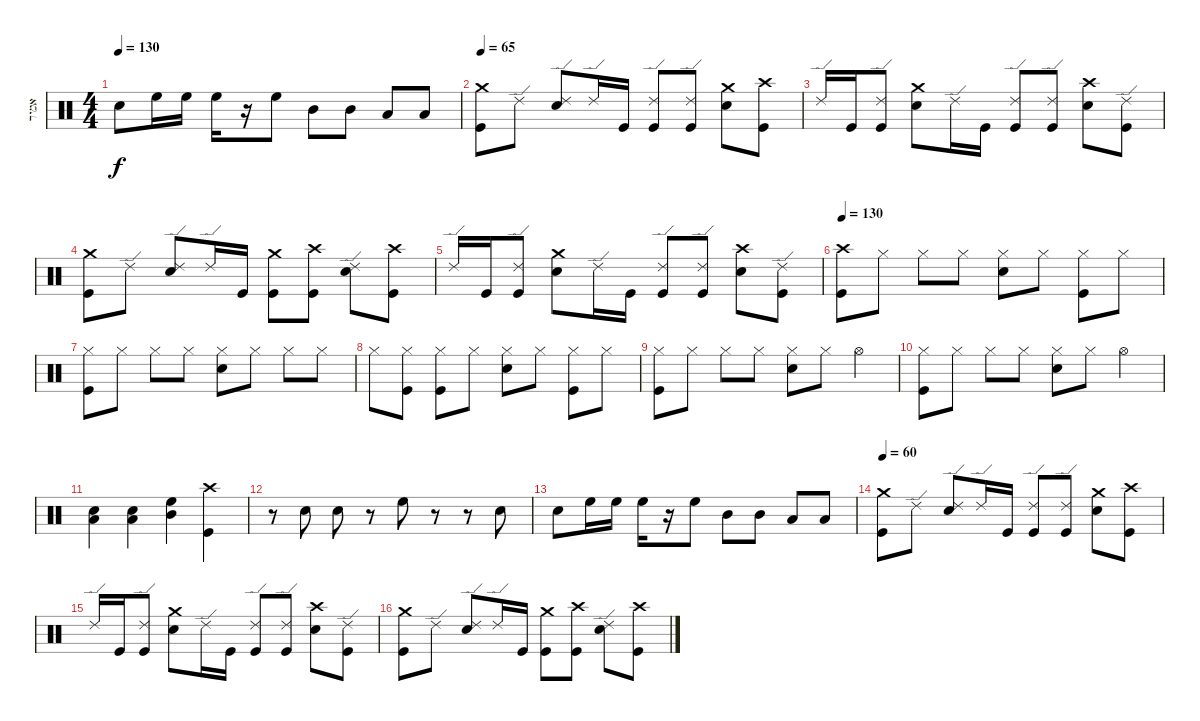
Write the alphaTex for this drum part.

\track ("אמיר" "אמיר") {instrument percussion}
\staff {score}
\articulation defaults
\ts (4 4)
\tempo 130
\clef neutral
\ks c "Snare (hit) 2".8{dy f} "High Floor Tom (hit)".16 "High Floor Tom (hit)".16 "High Floor Tom (hit)".16
r.16 "High Floor Tom (hit)".8 "Mid Tom (hit)".8 "Mid Tom (hit)".8 "Low Floor Tom (hit)".8 "Low Floor Tom (hit)".8 |
\tempo 65
("Crash medium (hit)" "Kick (hit)").8 "Ride (edge) 2".8 ("Ride (edge) 2" "Snare (hit) 2").8 "Ride (edge) 2".16 "Kick (hit)".16 ("Ride (edge) 2" "Kick (hit)").8 ("Ride (edge) 2" "Kick (hit)").8 ("Crash medium (hit)" "Snare (hit) 2").8 ("Crash high (hit)" "Kick (hit)").8 |
"Ride (edge) 2".16 "Kick (hit)".16 ("Ride (edge) 2" "Kick (hit)").8 ("Crash medium (hit)" "Snare (hit) 2").8 "Ride (edge) 2".16 "Kick (hit)".16 ("Ride (edge) 2" "Kick (hit)").8 ("Ride (edge) 2" "Kick (hit)").8 ("Crash high (hit)" "Snare (hit) 2").8 ("Ride (edge) 2" "Kick (hit)").8 |
("Crash medium (hit)" "Kick (hit)").8 "Ride (edge) 2".8 ("Ride (edge) 2" "Snare (hit) 2").8 "Ride (edge) 2".16 "Kick (hit)".16 ("Crash medium (hit)" "Kick (hit)").8 ("Crash high (hit)" "Kick (hit)").8 ("Ride (edge) 2" "Snare (hit) 2").8 ("Crash high (hit)" "Kick (hit)").8 |
"Ride (edge) 2".16 "Kick (hit)".16 ("Ride (edge) 2" "Kick (hit)").8 ("Crash medium (hit)" "Snare (hit) 2").8 "Ride (edge) 2".16 "Kick (hit)".16 ("Ride (edge) 2" "Kick (hit)").8 ("Ride (edge) 2" "Kick (hit)").8 ("Crash high (hit)" "Snare (hit) 2").8 ("Ride (edge) 2" "Kick (hit)").8 |
\tempo 120
\tempo 130
("Crash high (hit)" "Kick (hit)").8 "Hi-Hat (closed)".8 "Hi-Hat (closed)".8 "Hi-Hat (closed)".8 ("Hi-Hat (closed)" "Snare (hit) 2").8 "Hi-Hat (closed)".8 ("Hi-Hat (closed)" "Kick (hit)").8 "Hi-Hat (closed)".8 |
("Hi-Hat (closed)" "Kick (hit)").8 "Hi-Hat (closed)".8 "Hi-Hat (closed)".8 "Hi-Hat (closed)".8 ("Hi-Hat (closed)" "Snare (hit) 2").8 "Hi-Hat (closed)".8 "Hi-Hat (closed)".8 "Hi-Hat (closed)".8 |
"Hi-Hat (closed)".8 ("Hi-Hat (closed)" "Kick (hit)").8 ("Hi-Hat (closed)" "Kick (hit)").8 "Hi-Hat (closed)".8 ("Hi-Hat (closed)" "Snare (hit) 2").8 "Hi-Hat (closed)".8 ("Hi-Hat (closed)" "Kick (hit)").8 "Hi-Hat (closed)".8 |
("Hi-Hat (closed)" "Kick (hit)").8 "Hi-Hat (closed)".8 "Hi-Hat (closed)".8 "Hi-Hat (closed)".8 ("Hi-Hat (closed)" "Snare (hit) 2").8 "Hi-Hat (closed)".8 "Hi-Hat (open)".4 |
("Hi-Hat (closed)" "Kick (hit)").8 "Hi-Hat (closed)".8 "Hi-Hat (closed)".8 "Hi-Hat (closed)".8 ("Hi-Hat (closed)" "Snare (hit) 2").8 "Hi-Hat (closed)".8 "Hi-Hat (open)".4 |
("Snare (hit) 2" "Low Floor Tom (hit)").4 ("Snare (hit) 2" "Low Floor Tom (hit)").4 ("High Floor Tom (hit)" "Mid Tom (hit)").4 ("Crash high (hit)" "Kick (hit)").4 |
r.8 "Snare (hit) 2".8 "Snare (hit) 2".8 r.8 "High Floor Tom (hit)".8 r.8 r.8 "Snare (hit) 2".8 |
"Snare (hit) 2".8 "High Floor Tom (hit)".16 "High Floor Tom (hit)".16 "High Floor Tom (hit)".16 r.16 "High Floor Tom (hit)".8 "Mid Tom (hit)".8 "Mid Tom (hit)".8 "Low Floor Tom (hit)".8 "Low Floor Tom (hit)".8 |
\tempo 60
("Crash medium (hit)" "Kick (hit)").8 "Ride (edge) 2".8 ("Ride (edge) 2" "Snare (hit) 2").8 "Ride (edge) 2".16 "Kick (hit)".16 ("Ride (edge) 2" "Kick (hit)").8 ("Ride (edge) 2" "Kick (hit)").8 ("Crash medium (hit)" "Snare (hit) 2").8 ("Crash high (hit)" "Kick (hit)").8 |
"Ride (edge) 2".16 "Kick (hit)".16 ("Ride (edge) 2" "Kick (hit)").8 ("Crash medium (hit)" "Snare (hit) 2").8 "Ride (edge) 2".16 "Kick (hit)".16 ("Ride (edge) 2" "Kick (hit)").8 ("Ride (edge) 2" "Kick (hit)").8 ("Crash high (hit)" "Snare (hit) 2").8 ("Ride (edge) 2" "Kick (hit)").8 |
("Crash medium (hit)" "Kick (hit)").8 "Ride (edge) 2".8 ("Ride (edge) 2" "Snare (hit) 2").8 "Ride (edge) 2".16 "Kick (hit)".16 ("Crash medium (hit)" "Kick (hit)").8 ("Crash high (hit)" "Kick (hit)").8 ("Ride (edge) 2" "Snare (hit) 2").8 ("Crash high (hit)" "Kick (hit)").8
